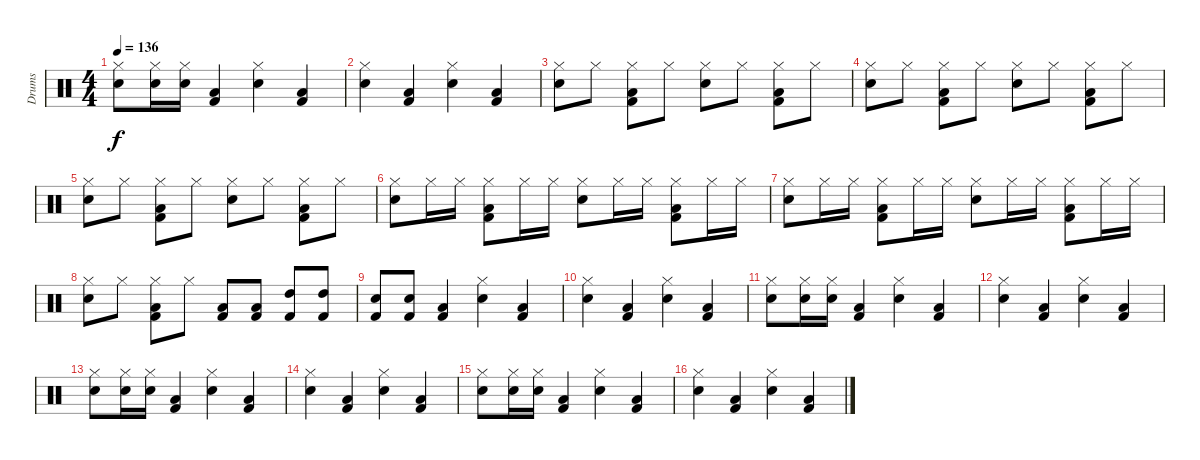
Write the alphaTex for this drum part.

\track ("Drums" "Drums") {instrument percussion}
\staff {score}
\articulation defaults
\ts (4 4)
\tempo 136
\clef neutral
\ks c
("Hi-Hat (closed)" "Snare (hit) 2").8{dy f} ("Hi-Hat (closed)" "Snare (hit) 2").16 ("Hi-Hat (closed)" "Snare (hit) 2").16 ("Kick (hit) 2" "Low Floor Tom (hit)").4 ("Hi-Hat (closed)" "Snare (hit) 2").4 ("Kick (hit) 2" "Low Floor Tom (hit)").4 |
("Hi-Hat (closed)" "Snare (hit) 2").4 ("Kick (hit) 2" "Low Floor Tom (hit)").4 ("Hi-Hat (closed)" "Snare (hit) 2").4 ("Kick (hit) 2" "Low Floor Tom (hit)").4 |
("Hi-Hat (closed)" "Snare (hit) 2").8 "Hi-Hat (closed)".8 ("Kick (hit) 2" "Low Floor Tom (hit)" "Hi-Hat (closed)").8 "Hi-Hat (closed)".8 ("Hi-Hat (closed)" "Snare (hit) 2").8 "Hi-Hat (closed)".8 ("Kick (hit) 2" "Low Floor Tom (hit)" "Hi-Hat (closed)").8 "Hi-Hat (closed)".8 |
("Hi-Hat (closed)" "Snare (hit) 2").8 "Hi-Hat (closed)".8 ("Kick (hit) 2" "Low Floor Tom (hit)" "Hi-Hat (closed)").8 "Hi-Hat (closed)".8 ("Hi-Hat (closed)" "Snare (hit) 2").8 "Hi-Hat (closed)".8 ("Kick (hit) 2" "Low Floor Tom (hit)" "Hi-Hat (closed)").8 "Hi-Hat (closed)".8 |
("Hi-Hat (closed)" "Snare (hit) 2").8 "Hi-Hat (closed)".8 ("Kick (hit) 2" "Low Floor Tom (hit)" "Hi-Hat (closed)").8 "Hi-Hat (closed)".8 ("Hi-Hat (closed)" "Snare (hit) 2").8 "Hi-Hat (closed)".8 ("Kick (hit) 2" "Low Floor Tom (hit)" "Hi-Hat (closed)").8 "Hi-Hat (closed)".8 |
("Hi-Hat (closed)" "Snare (hit) 2").8 "Hi-Hat (closed)".16 "Hi-Hat (closed)".16 ("Kick (hit) 2" "Low Floor Tom (hit)" "Hi-Hat (closed)").8 "Hi-Hat (closed)".16 "Hi-Hat (closed)".16 ("Hi-Hat (closed)" "Snare (hit) 2").8 "Hi-Hat (closed)".16 "Hi-Hat (closed)".16 ("Kick (hit) 2" "Low Floor Tom (hit)" "Hi-Hat (closed)").8 "Hi-Hat (closed)".16 "Hi-Hat (closed)".16 |
("Hi-Hat (closed)" "Snare (hit) 2").8 "Hi-Hat (closed)".16 "Hi-Hat (closed)".16 ("Kick (hit) 2" "Low Floor Tom (hit)" "Hi-Hat (closed)").8 "Hi-Hat (closed)".16 "Hi-Hat (closed)".16 ("Hi-Hat (closed)" "Snare (hit) 2").8 "Hi-Hat (closed)".16 "Hi-Hat (closed)".16 ("Kick (hit) 2" "Low Floor Tom (hit)" "Hi-Hat (closed)").8 "Hi-Hat (closed)".16 "Hi-Hat (closed)".16 |
("Hi-Hat (closed)" "Snare (hit) 2").8 "Hi-Hat (closed)".8 ("Kick (hit) 2" "Low Floor Tom (hit)" "Hi-Hat (closed)").8 "Hi-Hat (closed)".8 ("Kick (hit) 2" "Low Floor Tom (hit)").8 ("Kick (hit) 2" "Low Floor Tom (hit)").8 ("Kick (hit) 2" "High Tom (hit)").8 ("Kick (hit) 2" "High Tom (hit)").8 |
("Kick (hit) 2" "Snare (hit) 2").8 ("Kick (hit) 2" "Snare (hit) 2").8 ("Kick (hit) 2" "Low Floor Tom (hit)").4 ("Hi-Hat (closed)" "Snare (hit) 2").4 ("Kick (hit) 2" "Low Floor Tom (hit)").4 |
("Hi-Hat (closed)" "Snare (hit) 2").4 ("Kick (hit) 2" "Low Floor Tom (hit)").4 ("Hi-Hat (closed)" "Snare (hit) 2").4 ("Kick (hit) 2" "Low Floor Tom (hit)").4 |
("Hi-Hat (closed)" "Snare (hit) 2").8 ("Hi-Hat (closed)" "Snare (hit) 2").16 ("Hi-Hat (closed)" "Snare (hit) 2").16 ("Kick (hit) 2" "Low Floor Tom (hit)").4 ("Hi-Hat (closed)" "Snare (hit) 2").4 ("Kick (hit) 2" "Low Floor Tom (hit)").4 |
("Hi-Hat (closed)" "Snare (hit) 2").4 ("Kick (hit) 2" "Low Floor Tom (hit)").4 ("Hi-Hat (closed)" "Snare (hit) 2").4 ("Kick (hit) 2" "Low Floor Tom (hit)").4 |
("Hi-Hat (closed)" "Snare (hit) 2").8 ("Hi-Hat (closed)" "Snare (hit) 2").16 ("Hi-Hat (closed)" "Snare (hit) 2").16 ("Kick (hit) 2" "Low Floor Tom (hit)").4 ("Hi-Hat (closed)" "Snare (hit) 2").4 ("Kick (hit) 2" "Low Floor Tom (hit)").4 |
("Hi-Hat (closed)" "Snare (hit) 2").4 ("Kick (hit) 2" "Low Floor Tom (hit)").4 ("Hi-Hat (closed)" "Snare (hit) 2").4 ("Kick (hit) 2" "Low Floor Tom (hit)").4 |
("Hi-Hat (closed)" "Snare (hit) 2").8 ("Hi-Hat (closed)" "Snare (hit) 2").16 ("Hi-Hat (closed)" "Snare (hit) 2").16 ("Kick (hit) 2" "Low Floor Tom (hit)").4 ("Hi-Hat (closed)" "Snare (hit) 2").4 ("Kick (hit) 2" "Low Floor Tom (hit)").4 |
("Hi-Hat (closed)" "Snare (hit) 2").4 ("Kick (hit) 2" "Low Floor Tom (hit)").4 ("Hi-Hat (closed)" "Snare (hit) 2").4 ("Kick (hit) 2" "Low Floor Tom (hit)").4
